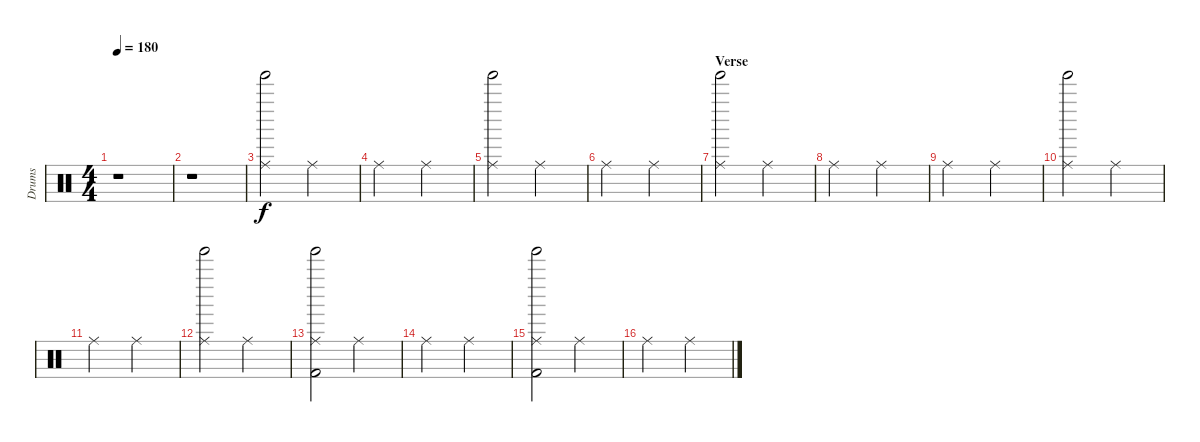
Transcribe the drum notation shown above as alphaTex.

\track ("Drums" "Drums") {instrument percussion}
\staff {score}
\articulation defaults
\ts (4 4)
\tempo 180
\clef neutral
\ks c
r.1{dy f} |
r.1 |
("Ride (middle)" "Tinkle Bell (hit)").2 "Ride (middle)".2 |
"Ride (middle)".2 "Ride (middle)".2 |
("Ride (middle)" "Tinkle Bell (hit)").2 "Ride (middle)".2 |
"Ride (middle)".2 "Ride (middle)".2 |
\section ("" "Verse")
("Ride (middle)" "Tinkle Bell (hit)").2 "Ride (middle)".2 |
"Ride (middle)".2 "Ride (middle)".2 |
"Ride (middle)".2 "Ride (middle)".2 |
("Ride (middle)" "Tinkle Bell (hit)").2 "Ride (middle)".2 |
"Ride (middle)".2 "Ride (middle)".2 |
("Ride (middle)" "Tinkle Bell (hit)").2 "Ride (middle)".2 |
("Ride (middle)" "Kick (hit) 2" "Tinkle Bell (hit)").2 "Ride (middle)".2 |
"Ride (middle)".2 "Ride (middle)".2 |
("Ride (middle)" "Kick (hit) 2" "Tinkle Bell (hit)").2 "Ride (middle)".2 |
"Ride (middle)".2 "Ride (middle)".2
